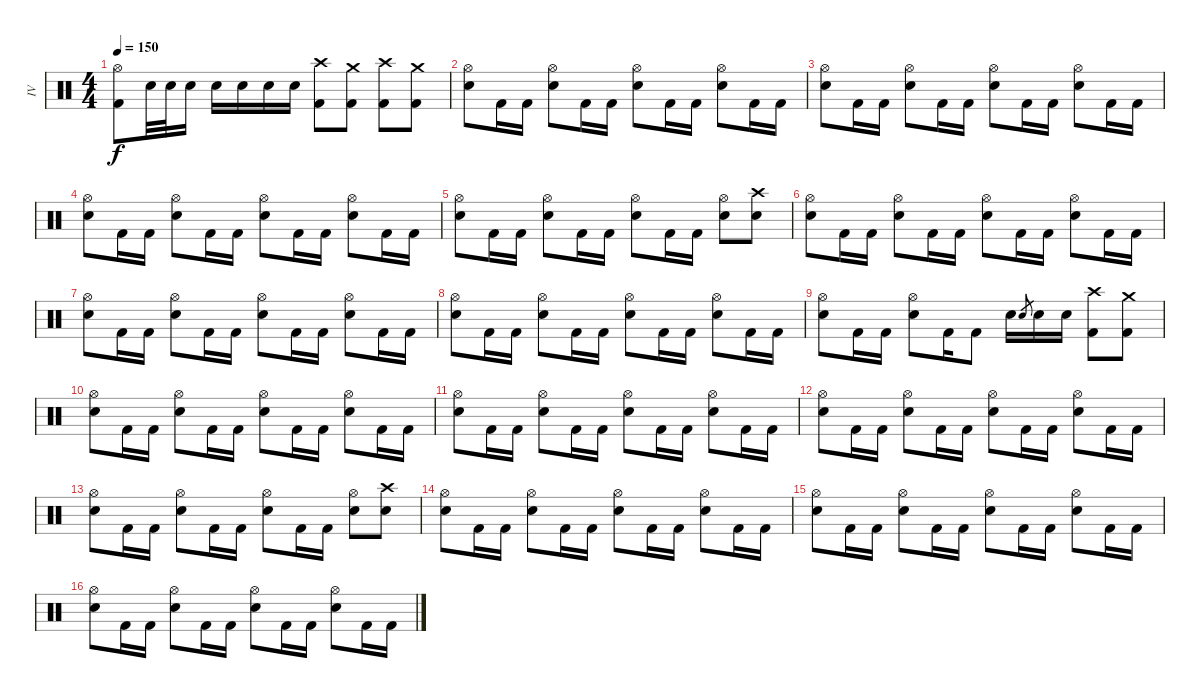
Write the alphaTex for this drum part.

\track ("IV" "IV") {instrument percussion}
\staff {score}
\articulation defaults
\ts (4 4)
\tempo 150
\clef neutral
\ks c
("Hi-Hat (open)" "Kick (hit) 2").8{dy f} "Snare (hit) 2".32 "Snare (hit) 2".32 "Snare (hit) 2".16 "Snare (hit) 2".16 "Snare (hit) 2".16 "Snare (hit) 2".16 "Snare (hit) 2".16 ("Crash high (hit)" "Kick (hit) 2").8 ("Crash medium (hit)" "Kick (hit) 2").8 ("Crash high (hit)" "Kick (hit) 2").8 ("Crash medium (hit)" "Kick (hit) 2").8 |
("Hi-Hat (open)" "Snare (hit) 2").8 "Kick (hit) 2".16 "Kick (hit) 2".16 ("Hi-Hat (open)" "Snare (hit) 2").8 "Kick (hit) 2".16 "Kick (hit) 2".16 ("Hi-Hat (open)" "Snare (hit) 2").8 "Kick (hit) 2".16 "Kick (hit) 2".16 ("Hi-Hat (open)" "Snare (hit) 2").8 "Kick (hit) 2".16 "Kick (hit) 2".16 |
("Hi-Hat (open)" "Snare (hit) 2").8 "Kick (hit) 2".16 "Kick (hit) 2".16 ("Hi-Hat (open)" "Snare (hit) 2").8 "Kick (hit) 2".16 "Kick (hit) 2".16 ("Hi-Hat (open)" "Snare (hit) 2").8 "Kick (hit) 2".16 "Kick (hit) 2".16 ("Hi-Hat (open)" "Snare (hit) 2").8 "Kick (hit) 2".16 "Kick (hit) 2".16 |
("Hi-Hat (open)" "Snare (hit) 2").8 "Kick (hit) 2".16 "Kick (hit) 2".16 ("Hi-Hat (open)" "Snare (hit) 2").8 "Kick (hit) 2".16 "Kick (hit) 2".16 ("Hi-Hat (open)" "Snare (hit) 2").8 "Kick (hit) 2".16 "Kick (hit) 2".16 ("Hi-Hat (open)" "Snare (hit) 2").8 "Kick (hit) 2".16 "Kick (hit) 2".16 |
("Hi-Hat (open)" "Snare (hit) 2").8 "Kick (hit) 2".16 "Kick (hit) 2".16 ("Hi-Hat (open)" "Snare (hit) 2").8 "Kick (hit) 2".16 "Kick (hit) 2".16 ("Hi-Hat (open)" "Snare (hit) 2").8 "Kick (hit) 2".16 "Kick (hit) 2".16 ("Hi-Hat (open)" "Snare (hit) 2").8 ("Crash high (hit)" "Snare (hit) 2").8 |
("Hi-Hat (open)" "Snare (hit) 2").8 "Kick (hit) 2".16 "Kick (hit) 2".16 ("Hi-Hat (open)" "Snare (hit) 2").8 "Kick (hit) 2".16 "Kick (hit) 2".16 ("Hi-Hat (open)" "Snare (hit) 2").8 "Kick (hit) 2".16 "Kick (hit) 2".16 ("Hi-Hat (open)" "Snare (hit) 2").8 "Kick (hit) 2".16 "Kick (hit) 2".16 |
("Hi-Hat (open)" "Snare (hit) 2").8 "Kick (hit) 2".16 "Kick (hit) 2".16 ("Hi-Hat (open)" "Snare (hit) 2").8 "Kick (hit) 2".16 "Kick (hit) 2".16 ("Hi-Hat (open)" "Snare (hit) 2").8 "Kick (hit) 2".16 "Kick (hit) 2".16 ("Hi-Hat (open)" "Snare (hit) 2").8 "Kick (hit) 2".16 "Kick (hit) 2".16 |
("Hi-Hat (open)" "Snare (hit) 2").8 "Kick (hit) 2".16 "Kick (hit) 2".16 ("Hi-Hat (open)" "Snare (hit) 2").8 "Kick (hit) 2".16 "Kick (hit) 2".16 ("Hi-Hat (open)" "Snare (hit) 2").8 "Kick (hit) 2".16 "Kick (hit) 2".16 ("Hi-Hat (open)" "Snare (hit) 2").8 "Kick (hit) 2".16 "Kick (hit) 2".16 |
("Hi-Hat (open)" "Snare (hit) 2").8 "Kick (hit) 2".16 "Kick (hit) 2".16 ("Hi-Hat (open)" "Snare (hit) 2").8 "Kick (hit) 2".16 "Kick (hit) 2".8 "Snare (hit) 2".16 "Snare (hit) 2".8{gr} "Snare (hit) 2".16 "Snare (hit) 2".16 ("Crash high (hit)" "Kick (hit) 2").8 ("Crash medium (hit)" "Kick (hit) 2").8 |
("Hi-Hat (open)" "Snare (hit) 2").8 "Kick (hit) 2".16 "Kick (hit) 2".16 ("Hi-Hat (open)" "Snare (hit) 2").8 "Kick (hit) 2".16 "Kick (hit) 2".16 ("Hi-Hat (open)" "Snare (hit) 2").8 "Kick (hit) 2".16 "Kick (hit) 2".16 ("Hi-Hat (open)" "Snare (hit) 2").8 "Kick (hit) 2".16 "Kick (hit) 2".16 |
("Hi-Hat (open)" "Snare (hit) 2").8 "Kick (hit) 2".16 "Kick (hit) 2".16 ("Hi-Hat (open)" "Snare (hit) 2").8 "Kick (hit) 2".16 "Kick (hit) 2".16 ("Hi-Hat (open)" "Snare (hit) 2").8 "Kick (hit) 2".16 "Kick (hit) 2".16 ("Hi-Hat (open)" "Snare (hit) 2").8 "Kick (hit) 2".16 "Kick (hit) 2".16 |
("Hi-Hat (open)" "Snare (hit) 2").8 "Kick (hit) 2".16 "Kick (hit) 2".16 ("Hi-Hat (open)" "Snare (hit) 2").8 "Kick (hit) 2".16 "Kick (hit) 2".16 ("Hi-Hat (open)" "Snare (hit) 2").8 "Kick (hit) 2".16 "Kick (hit) 2".16 ("Hi-Hat (open)" "Snare (hit) 2").8 "Kick (hit) 2".16 "Kick (hit) 2".16 |
("Hi-Hat (open)" "Snare (hit) 2").8 "Kick (hit) 2".16 "Kick (hit) 2".16 ("Hi-Hat (open)" "Snare (hit) 2").8 "Kick (hit) 2".16 "Kick (hit) 2".16 ("Hi-Hat (open)" "Snare (hit) 2").8 "Kick (hit) 2".16 "Kick (hit) 2".16 ("Hi-Hat (open)" "Snare (hit) 2").8 ("Crash high (hit)" "Snare (hit) 2").8 |
("Hi-Hat (open)" "Snare (hit) 2").8 "Kick (hit) 2".16 "Kick (hit) 2".16 ("Hi-Hat (open)" "Snare (hit) 2").8 "Kick (hit) 2".16 "Kick (hit) 2".16 ("Hi-Hat (open)" "Snare (hit) 2").8 "Kick (hit) 2".16 "Kick (hit) 2".16 ("Hi-Hat (open)" "Snare (hit) 2").8 "Kick (hit) 2".16 "Kick (hit) 2".16 |
("Hi-Hat (open)" "Snare (hit) 2").8 "Kick (hit) 2".16 "Kick (hit) 2".16 ("Hi-Hat (open)" "Snare (hit) 2").8 "Kick (hit) 2".16 "Kick (hit) 2".16 ("Hi-Hat (open)" "Snare (hit) 2").8 "Kick (hit) 2".16 "Kick (hit) 2".16 ("Hi-Hat (open)" "Snare (hit) 2").8 "Kick (hit) 2".16 "Kick (hit) 2".16 |
("Hi-Hat (open)" "Snare (hit) 2").8 "Kick (hit) 2".16 "Kick (hit) 2".16 ("Hi-Hat (open)" "Snare (hit) 2").8 "Kick (hit) 2".16 "Kick (hit) 2".16 ("Hi-Hat (open)" "Snare (hit) 2").8 "Kick (hit) 2".16 "Kick (hit) 2".16 ("Hi-Hat (open)" "Snare (hit) 2").8 "Kick (hit) 2".16 "Kick (hit) 2".16
